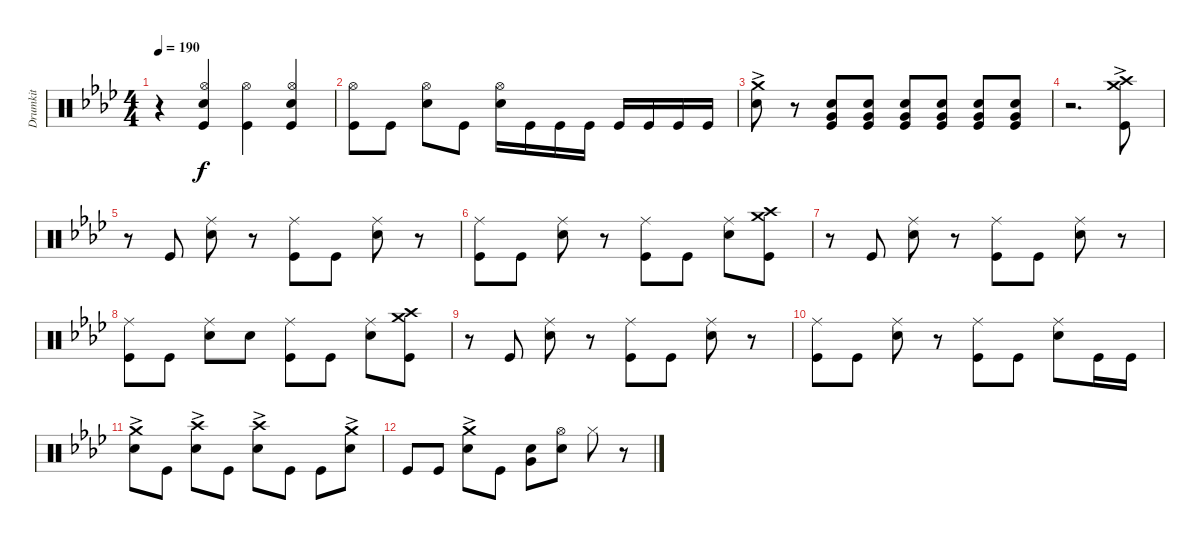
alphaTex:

\track ("Drumkit" "Drumkit") {instrument percussion}
\staff {score}
\articulation defaults
\ts (4 4)
\tempo 190
\clef neutral
\ks ab
r.4{dy f} ("Snare (hit) 2" "Hi-Hat (open)" "Kick (hit)").4 ("Kick (hit)" "Hi-Hat (open)").4 ("Snare (hit) 2" "Hi-Hat (open)" "Kick (hit)").4 |
("Kick (hit)" "Hi-Hat (open)").8 "Kick (hit)".8 ("Snare (hit) 2" "Hi-Hat (open)").8 "Kick (hit)".8 ("Snare (hit) 2" "Hi-Hat (open)").16 "Kick (hit)".16 "Kick (hit)".16 "Kick (hit)".16 "Kick (hit)".16 "Kick (hit)".16 "Kick (hit)".16 "Kick (hit)".16 |
("Snare (hit) 2" "Crash medium (hit)"{ac}).8 r.8 ("Snare (hit) 2" "Very Low Tom (hit)" "Kick (hit)").8 ("Snare (hit) 2" "Very Low Tom (hit)" "Kick (hit)").8 ("Snare (hit) 2" "Very Low Tom (hit)" "Kick (hit)").8 ("Snare (hit) 2" "Very Low Tom (hit)" "Kick (hit)").8 ("Snare (hit) 2" "Very Low Tom (hit)" "Kick (hit)").8 ("Snare (hit) 2" "Very Low Tom (hit)" "Kick (hit)").8 |
r.2{d} ("Crash medium (hit)"{ac} "Crash high (hit)"{ac} "Kick (hit)"{ac}).8 |
r.8 "Kick (hit)".8 ("Snare (hit) 2" "Ride (middle)").8 r.8 ("Kick (hit)" "Ride (middle)").8 "Kick (hit)".8 ("Snare (hit) 2" "Ride (middle)").8 r.8 |
("Kick (hit)" "Ride (middle)").8 "Kick (hit)".8 ("Snare (hit) 2" "Ride (middle)").8 r.8 ("Kick (hit)" "Ride (middle)").8 "Kick (hit)".8 ("Snare (hit) 2" "Ride (middle)").8 ("Crash medium (hit)" "Crash high (hit)" "Kick (hit)").8 |
r.8 "Kick (hit)".8 ("Snare (hit) 2" "Ride (middle)").8 r.8 ("Kick (hit)" "Ride (middle)").8 "Kick (hit)".8 ("Snare (hit) 2" "Ride (middle)").8 r.8 |
("Kick (hit)" "Ride (middle)").8 "Kick (hit)".8 ("Snare (hit) 2" "Ride (middle)").8 "Snare (hit) 2".8 ("Kick (hit)" "Ride (middle)").8 "Kick (hit)".8 ("Snare (hit) 2" "Ride (middle)").8 ("Crash medium (hit)" "Crash high (hit)" "Kick (hit)").8 |
r.8 "Kick (hit)".8 ("Snare (hit) 2" "Ride (middle)").8 r.8 ("Kick (hit)" "Ride (middle)").8 "Kick (hit)".8 ("Snare (hit) 2" "Ride (middle)").8 r.8 |
("Kick (hit)" "Ride (middle)").8 "Kick (hit)".8 ("Snare (hit) 2" "Ride (middle)").8 r.8 ("Kick (hit)" "Ride (middle)").8 "Kick (hit)".8 ("Snare (hit) 2" "Ride (middle)").8 "Kick (hit)".16 "Kick (hit)".16 |
("Snare (hit) 2" "Crash medium (hit)"{ac}).8 "Kick (hit)".8 ("Snare (hit) 2" "Crash high (hit)"{ac}).8 "Kick (hit)".8 ("Snare (hit) 2" "Crash high (hit)"{ac}).8 "Kick (hit)".8 "Kick (hit)".8 ("Snare (hit) 2" "Crash medium (hit)"{ac}).8 |
"Kick (hit)".8 "Kick (hit)".8 ("Snare (hit) 2" "Crash medium (hit)"{ac}).8 "Kick (hit)".8 ("Snare (hit) 2" "Very Low Tom (hit)").8 ("Snare (hit) 2" "Hi-Hat (open)").8 "Hi-Hat (closed)".8 r.8
